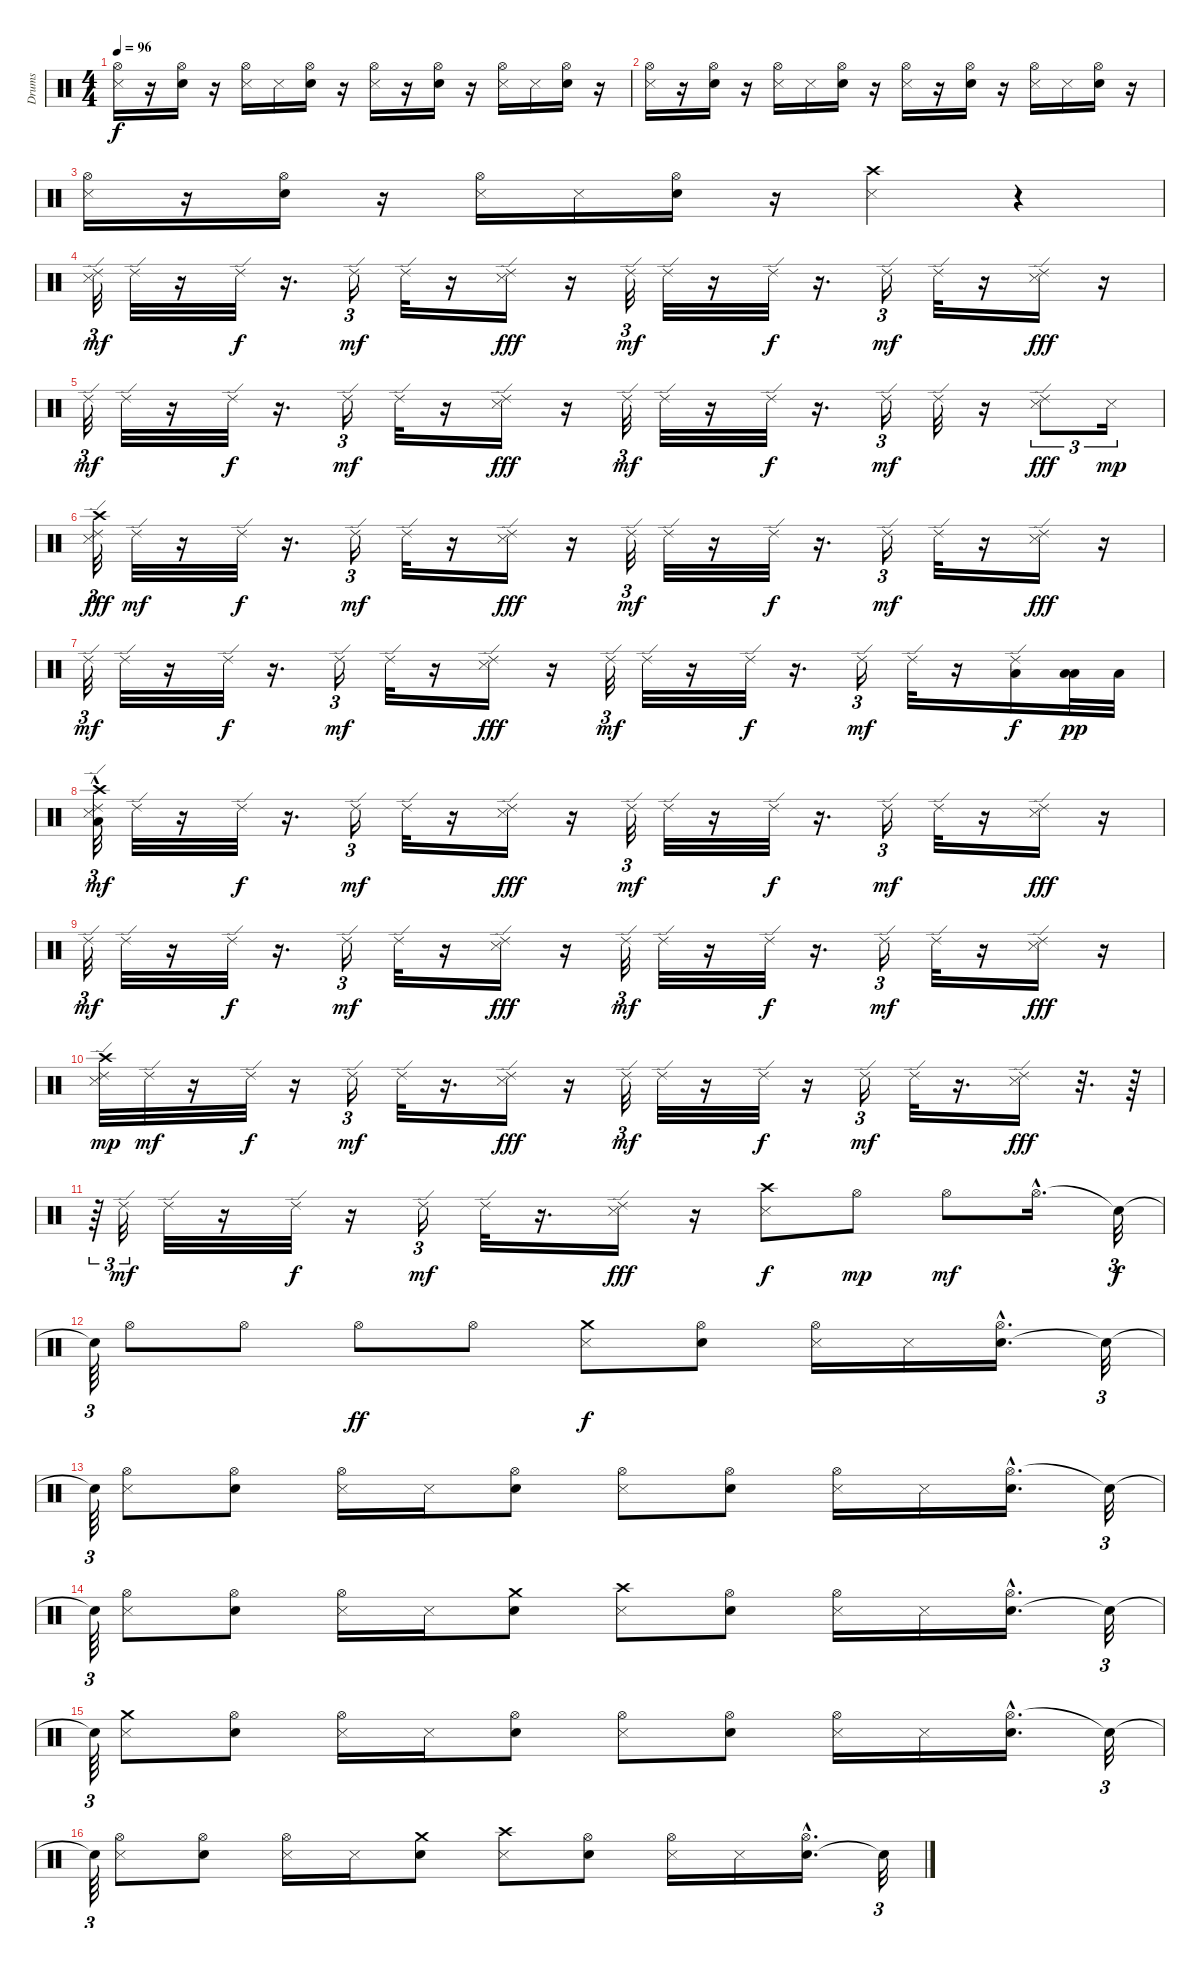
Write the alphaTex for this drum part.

\track ("Drums" "Drums") {instrument percussion}
\staff {score}
\articulation defaults
\ts (4 4)
\tempo 96
\clef neutral
\ks c
("Metronome (hit)" "Hi-Hat (open)").16{dy f} r.16 ("Hi-Hat (open)" "Electric Snare (hit)").16 r.16 ("Hi-Hat (open)" "Metronome (hit)").16 "Metronome (hit)".16 ("Hi-Hat (open)" "Electric Snare (hit)").16 r.16 ("Metronome (hit)" "Hi-Hat (open)").16 r.16 ("Hi-Hat (open)" "Electric Snare (hit)").16 r.16 ("Hi-Hat (open)" "Metronome (hit)").16 "Metronome (hit)".16 ("Hi-Hat (open)" "Electric Snare (hit)").16 r.16 |
("Metronome (hit)" "Hi-Hat (open)").16 r.16 ("Electric Snare (hit)" "Hi-Hat (open)").16 r.16 ("Metronome (hit)" "Hi-Hat (open)").16 "Metronome (hit)".16 ("Hi-Hat (open)" "Electric Snare (hit)").16 r.16 ("Hi-Hat (open)" "Metronome (hit)").16 r.16 ("Electric Snare (hit)" "Hi-Hat (open)").16 r.16 ("Hi-Hat (open)" "Metronome (hit)").16 "Metronome (hit)".16 ("Electric Snare (hit)" "Hi-Hat (open)").16 r.16 |
("Hi-Hat (open)" "Metronome (hit)").16 r.16 ("Hi-Hat (open)" "Electric Snare (hit)").16 r.16 ("Hi-Hat (open)" "Metronome (hit)").16 "Metronome (hit)".16 ("Hi-Hat (open)" "Electric Snare (hit)").16 r.16 ("Metronome (hit)" "Crash high (hit)").4 r.4 |
("Metronome (hit)" "Ride (edge) 2").32{tu (3 2) dy mf} "Ride (edge) 2".32 r.16 "Ride (edge) 2".32{dy f} r.16{d} "Ride (edge) 2".16{tu (3 2) dy mf} "Ride (edge) 2".32 r.16 ("Snare (side stick) 3" "Ride (edge) 2").16{dy fff} r.16 "Ride (edge) 2".32{tu (3 2) dy mf} "Ride (edge) 2".32 r.16 "Ride (edge) 2".32{dy f} r.16{d} "Ride (edge) 2".16{tu (3 2) dy mf} "Ride (edge) 2".32 r.16 ("Snare (side stick) 3" "Ride (edge) 2").16{dy fff} r.16 |
"Ride (edge) 2".32{tu (3 2) dy mf} "Ride (edge) 2".32 r.16 "Ride (edge) 2".32{dy f} r.16{d} "Ride (edge) 2".16{tu (3 2) dy mf} "Ride (edge) 2".32 r.16 ("Ride (edge) 2" "Snare (side stick) 3").16{dy fff} r.16 "Ride (edge) 2".32{tu (3 2) dy mf} "Ride (edge) 2".32 r.16 "Ride (edge) 2".32{dy f} r.16{d} "Ride (edge) 2".16{tu (3 2) dy mf} "Ride (edge) 2".32 r.16 ("Snare (side stick) 3" "Ride (edge) 2").8{tu (3 2) dy fff} "Metronome (hit)".16{tu (3 2) dy mp} |
("Ride (edge) 2" "Crash high (hit)" "Metronome (hit)").32{tu (3 2) dy fff} "Ride (edge) 2".32{dy mf} r.16 "Ride (edge) 2".32{dy f} r.16{d} "Ride (edge) 2".16{tu (3 2) dy mf} "Ride (edge) 2".32 r.16 ("Ride (edge) 2" "Snare (side stick) 3").16{dy fff} r.16 "Ride (edge) 2".32{tu (3 2) dy mf} "Ride (edge) 2".32 r.16 "Ride (edge) 2".32{dy f} r.16{d} "Ride (edge) 2".16{tu (3 2) dy mf} "Ride (edge) 2".32 r.16 ("Ride (edge) 2" "Snare (side stick) 3").16{dy fff} r.16 |
"Ride (edge) 2".32{tu (3 2) dy mf} "Ride (edge) 2".32 r.16 "Ride (edge) 2".32{dy f} r.16{d} "Ride (edge) 2".16{tu (3 2) dy mf} "Ride (edge) 2".32 r.16 ("Snare (side stick) 3" "Ride (edge) 2").16{dy fff} r.16 "Ride (edge) 2".32{tu (3 2) dy mf} "Ride (edge) 2".32 r.16 "Ride (edge) 2".32{dy f} r.16{d} "Ride (edge) 2".16{tu (3 2) dy mf} "Ride (edge) 2".32 r.16 ("Low Tom (hit)" "Ride (edge) 2").16{dy f} ("Low Tom (hit)" "Low Tom (hit)").32{dy pp} "Low Tom (hit)".32 |
("Metronome (hit)"{hac} "Ride (edge) 2" "Crash high (hit)" "Low Floor Tom (hit)").32{tu (3 2) dy mf} "Ride (edge) 2".32 r.16 "Ride (edge) 2".32{dy f} r.16{d} "Ride (edge) 2".16{tu (3 2) dy mf} "Ride (edge) 2".32 r.16 ("Snare (side stick) 3" "Ride (edge) 2").16{dy fff} r.16 "Ride (edge) 2".32{tu (3 2) dy mf} "Ride (edge) 2".32 r.16 "Ride (edge) 2".32{dy f} r.16{d} "Ride (edge) 2".16{tu (3 2) dy mf} "Ride (edge) 2".32 r.16 ("Ride (edge) 2" "Snare (side stick) 3").16{dy fff} r.16 |
"Ride (edge) 2".32{tu (3 2) dy mf} "Ride (edge) 2".32 r.16 "Ride (edge) 2".32{dy f} r.16{d} "Ride (edge) 2".16{tu (3 2) dy mf} "Ride (edge) 2".32 r.16 ("Ride (edge) 2" "Snare (side stick) 3").16{dy fff} r.16 "Ride (edge) 2".32{tu (3 2) dy mf} "Ride (edge) 2".32 r.16 "Ride (edge) 2".32{dy f} r.16{d} "Ride (edge) 2".16{tu (3 2) dy mf} "Ride (edge) 2".32 r.16 ("Ride (edge) 2" "Snare (side stick) 3").16{dy fff} r.16 |
("Ride (edge) 2" "Metronome (hit)" "Crash high (hit)").32{dy mp} "Ride (edge) 2".32{dy mf} r.16 "Ride (edge) 2".32{dy f} r.16 "Ride (edge) 2".16{tu (3 2) dy mf} "Ride (edge) 2".32 r.16{d} ("Snare (side stick) 3" "Ride (edge) 2").16{dy fff} r.16 "Ride (edge) 2".32{tu (3 2) dy mf} "Ride (edge) 2".32 r.16 "Ride (edge) 2".32{dy f} r.16 "Ride (edge) 2".16{tu (3 2) dy mf} "Ride (edge) 2".32 r.16{d} ("Ride (edge) 2" "Snare (side stick) 3").16{dy fff} r.32{d} r.64 |
r.64{tu (3 2)} "Ride (edge) 2".32{tu (3 2) dy mf} "Ride (edge) 2".32 r.16 "Ride (edge) 2".32{dy f} r.16 "Ride (edge) 2".16{tu (3 2) dy mf} "Ride (edge) 2".32 r.16{d} ("Snare (side stick) 3" "Ride (edge) 2").16{dy fff} r.16 ("Metronome (hit)" "Crash high (hit)").8{dy f} "Hi-Hat (open)".8{dy mp} "Hi-Hat (open)".8{dy mf} "Hi-Hat (open)"{hac}.16{d} "Snare (hit)"{t}.32{tu (3 2) dy f} |
"Snare (hit)"{t}.64{tu (3 2)} "Hi-Hat (open)".8 "Hi-Hat (open)".8 "Hi-Hat (open)".8{dy ff} "Hi-Hat (open)".8 ("Crash medium (hit)" "Metronome (hit)").8{dy f} ("Electric Snare (hit)" "Hi-Hat (open)").8 ("Metronome (hit)" "Hi-Hat (open)").16 "Metronome (hit)".16 ("Electric Snare (hit)" "Hi-Hat (open)"{hac}).16{d} "Snare (hit)"{t}.32{tu (3 2)} |
"Snare (hit)"{t}.64{tu (3 2)} ("Metronome (hit)" "Hi-Hat (open)").8 ("Hi-Hat (open)" "Electric Snare (hit)").8 ("Metronome (hit)" "Hi-Hat (open)").16 "Metronome (hit)".16 ("Hi-Hat (open)" "Electric Snare (hit)").8 ("Metronome (hit)" "Hi-Hat (open)").8 ("Electric Snare (hit)" "Hi-Hat (open)").8 ("Hi-Hat (open)" "Metronome (hit)").16 "Metronome (hit)".16 ("Hi-Hat (open)"{hac} "Electric Snare (hit)").16{d} "Snare (hit)"{t}.32{tu (3 2)} |
"Snare (hit)"{t}.64{tu (3 2)} ("Hi-Hat (open)" "Metronome (hit)").8 ("Electric Snare (hit)" "Hi-Hat (open)").8 ("Metronome (hit)" "Hi-Hat (open)").16 "Metronome (hit)".16 ("Electric Snare (hit)" "Crash medium (hit)").8 ("Crash high (hit)" "Metronome (hit)").8 ("Hi-Hat (open)" "Electric Snare (hit)").8 ("Hi-Hat (open)" "Metronome (hit)").16 "Metronome (hit)".16 ("Electric Snare (hit)" "Hi-Hat (open)"{hac}).16{d} "Snare (hit)"{t}.32{tu (3 2)} |
"Snare (hit)"{t}.64{tu (3 2)} ("Metronome (hit)" "Crash medium (hit)").8 ("Hi-Hat (open)" "Electric Snare (hit)").8 ("Hi-Hat (open)" "Metronome (hit)").16 "Metronome (hit)".16 ("Hi-Hat (open)" "Electric Snare (hit)").8 ("Metronome (hit)" "Hi-Hat (open)").8 ("Hi-Hat (open)" "Electric Snare (hit)").8 ("Metronome (hit)" "Hi-Hat (open)").16 "Metronome (hit)".16 ("Hi-Hat (open)"{hac} "Electric Snare (hit)").16{d} "Snare (hit)"{t}.32{tu (3 2)} |
"Snare (hit)"{t}.64{tu (3 2)} ("Metronome (hit)" "Hi-Hat (open)").8 ("Electric Snare (hit)" "Hi-Hat (open)").8 ("Metronome (hit)" "Hi-Hat (open)").16 "Metronome (hit)".16 ("Crash medium (hit)" "Electric Snare (hit)").8 ("Metronome (hit)" "Crash high (hit)").8 ("Hi-Hat (open)" "Electric Snare (hit)").8 ("Metronome (hit)" "Hi-Hat (open)").16 "Metronome (hit)".16 ("Electric Snare (hit)" "Hi-Hat (open)"{hac}).16{d} "Snare (hit)"{t}.32{tu (3 2)}
